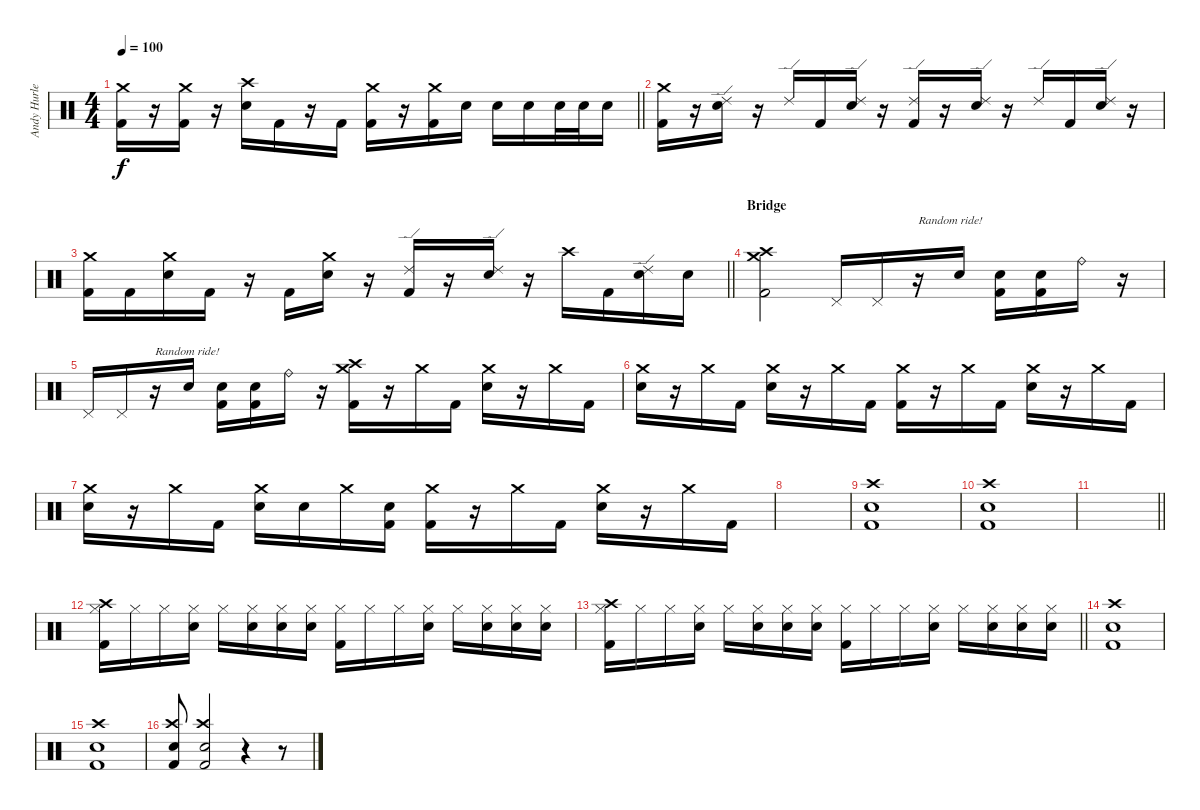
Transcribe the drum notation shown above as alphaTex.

\track ("Andy Hurley" "Andy Hurle") {instrument percussion}
\staff {score}
\articulation defaults
\ts (4 4)
\tempo 100
\clef neutral
\barLineRight lightlight
\ks c
("Crash medium (hit)" "Kick (hit) 2").16{dy f} r.16 ("Crash medium (hit)" "Kick (hit) 2").16 r.16 ("Crash high (hit)" "Electric Snare (hit)").16 "Kick (hit) 2".16 r.16 "Kick (hit) 2".16 ("Crash medium (hit)" "Kick (hit) 2").16 r.16 ("Crash medium (hit)" "Kick (hit) 2").16 "Electric Snare (hit)".16 "Electric Snare (hit)".16 "Electric Snare (hit)".16 "Electric Snare (hit)".32 "Electric Snare (hit)".32 "Electric Snare (hit)".16 |
("Crash medium (hit)" "Kick (hit) 2").16 r.16 ("Ride (edge) 2" "Electric Snare (hit)").16 r.16 "Ride (edge) 2".16 "Kick (hit) 2".16 ("Ride (edge) 2" "Electric Snare (hit)").16 r.16 ("Ride (edge) 2" "Kick (hit) 2").16 r.16 ("Ride (edge) 2" "Electric Snare (hit)").16 r.16 "Ride (edge) 2".16 "Kick (hit) 2".16 ("Ride (edge) 2" "Electric Snare (hit)").16 r.16 |
\barLineRight lightlight
("Crash medium (hit)" "Kick (hit) 2").16 "Kick (hit) 2".16 ("Crash medium (hit)" "Electric Snare (hit)").16 "Kick (hit) 2".16 r.16 "Kick (hit) 2".16 ("Crash medium (hit)" "Electric Snare (hit)").16 r.16 ("Ride (edge) 2" "Kick (hit) 2").16 r.16 ("Ride (edge) 2" "Electric Snare (hit)").16 r.16 "Crash high (hit)".16 "Kick (hit) 2".16 ("Ride (edge) 2" "Electric Snare (hit)").16 "Electric Snare (hit)".16 |
\section ("" "Bridge")
("Crash medium (hit)" "Crash high (hit)" "Kick (hit) 2").2 "Pedal Hi-Hat (hit)".16 "Pedal Hi-Hat (hit)".16 r.16{txt "Random ride!"} "Electric Snare (hit)".16 ("Electric Snare (hit)" "Kick (hit) 2").16 ("Electric Snare (hit)" "Kick (hit) 2").16 "Ride (bell)".16{volume 16} r.16{volume 12} |
"Pedal Hi-Hat (hit)".16 "Pedal Hi-Hat (hit)".16 r.16{txt "Random ride!"} "Electric Snare (hit)".16 ("Electric Snare (hit)" "Kick (hit) 2").16 ("Electric Snare (hit)" "Kick (hit) 2").16 "Ride (bell)".16{volume 16} r.16{volume 12} ("Crash high (hit)" "Crash medium (hit)" "Kick (hit) 2").16 r.16 "Crash medium (hit)".16 "Kick (hit) 2".16 ("Crash medium (hit)" "Electric Snare (hit)").16 r.16 "Crash medium (hit)".16 "Kick (hit) 2".16 |
("Crash medium (hit)" "Electric Snare (hit)").16 r.16 "Crash medium (hit)".16 "Kick (hit) 2".16 ("Crash medium (hit)" "Electric Snare (hit)").16 r.16 "Crash medium (hit)".16 "Kick (hit) 2".16 ("Crash medium (hit)" "Kick (hit) 2").16 r.16 "Crash medium (hit)".16 "Kick (hit) 2".16 ("Crash medium (hit)" "Electric Snare (hit)").16 r.16 "Crash medium (hit)".16 "Kick (hit) 2".16 |
("Crash medium (hit)" "Electric Snare (hit)").16 r.16 "Crash medium (hit)".16 "Kick (hit) 2".16 ("Crash medium (hit)" "Electric Snare (hit)").16 "Electric Snare (hit)".16 "Crash medium (hit)".16 ("Electric Snare (hit)" "Kick (hit) 2").16 ("Crash medium (hit)" "Kick (hit) 2").16 r.16 "Crash medium (hit)".16 "Kick (hit) 2".16 ("Crash medium (hit)" "Electric Snare (hit)").16 r.16 "Crash medium (hit)".16 "Kick (hit) 2".16 |
|
("Crash high (hit)" "Snare (hit) 2" "Kick (hit) 2").1 |
("Crash high (hit)" "Snare (hit) 2" "Kick (hit) 2").1 |
\barLineRight lightlight
|
("Crash high (hit)" "Hi-Hat (closed)" "Kick (hit) 2").16 "Hi-Hat (closed)".16 "Hi-Hat (closed)".16 ("Hi-Hat (closed)" "Snare (hit) 2").16 "Hi-Hat (closed)".16 ("Hi-Hat (closed)" "Snare (hit) 2").16 ("Hi-Hat (closed)" "Snare (hit) 2").16 ("Hi-Hat (closed)" "Snare (hit) 2").16 ("Hi-Hat (closed)" "Kick (hit) 2").16 "Hi-Hat (closed)".16 "Hi-Hat (closed)".16 ("Hi-Hat (closed)" "Snare (hit) 2").16 "Hi-Hat (closed)".16 ("Hi-Hat (closed)" "Snare (hit) 2").16 ("Hi-Hat (closed)" "Snare (hit) 2").16 ("Hi-Hat (closed)" "Snare (hit) 2").16 |
\barLineRight lightlight
("Crash high (hit)" "Hi-Hat (closed)" "Kick (hit) 2").16 "Hi-Hat (closed)".16 "Hi-Hat (closed)".16 ("Hi-Hat (closed)" "Snare (hit) 2").16 "Hi-Hat (closed)".16 ("Hi-Hat (closed)" "Snare (hit) 2").16 ("Hi-Hat (closed)" "Snare (hit) 2").16 ("Hi-Hat (closed)" "Snare (hit) 2").16 ("Hi-Hat (closed)" "Kick (hit) 2").16 "Hi-Hat (closed)".16 "Hi-Hat (closed)".16 ("Hi-Hat (closed)" "Snare (hit) 2").16 "Hi-Hat (closed)".16 ("Hi-Hat (closed)" "Snare (hit) 2").16 ("Hi-Hat (closed)" "Snare (hit) 2").16 ("Hi-Hat (closed)" "Snare (hit) 2").16 |
("Crash high (hit)" "Snare (hit) 2" "Kick (hit) 2").1 |
("Crash high (hit)" "Snare (hit) 2" "Kick (hit) 2").1 |
("Crash high (hit)" "Snare (hit) 2" "Kick (hit) 2").8 ("Crash high (hit)" "Snare (hit) 2" "Kick (hit) 2").2 r.4 r.8
